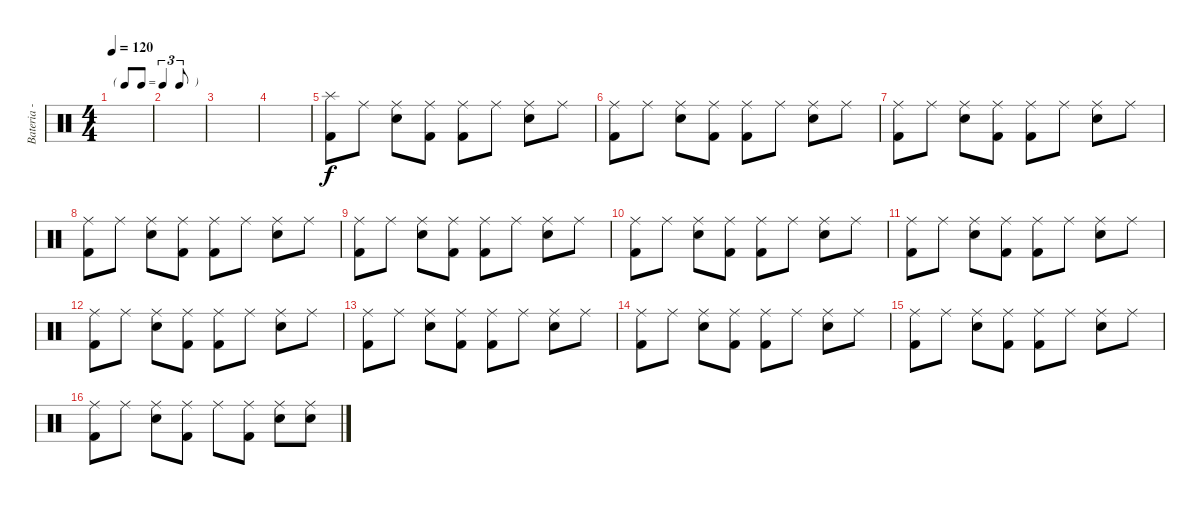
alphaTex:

\track ("Bateria - Cris Layton" "Bateria - ") {instrument percussion}
\staff {score}
\articulation defaults
\ts (4 4)
\tf triplet8th
\tempo 120
\clef neutral
\ks c
|
|
|
|
("Splash (hit)" "Kick (hit) 2").8 "Ride (middle)".8 ("Ride (middle)" "Electric Snare (hit)").8 ("Ride (middle)" "Kick (hit) 2").8 ("Ride (middle)" "Kick (hit) 2").8 "Ride (middle)".8 ("Ride (middle)" "Electric Snare (hit)").8 "Ride (middle)".8 |
("Ride (middle)" "Kick (hit) 2").8 "Ride (middle)".8 ("Ride (middle)" "Electric Snare (hit)").8 ("Ride (middle)" "Kick (hit) 2").8 ("Ride (middle)" "Kick (hit) 2").8 "Ride (middle)".8 ("Ride (middle)" "Electric Snare (hit)").8 "Ride (middle)".8 |
("Ride (middle)" "Kick (hit) 2").8 "Ride (middle)".8 ("Ride (middle)" "Electric Snare (hit)").8 ("Ride (middle)" "Kick (hit) 2").8 ("Ride (middle)" "Kick (hit) 2").8 "Ride (middle)".8 ("Ride (middle)" "Electric Snare (hit)").8 "Ride (middle)".8 |
("Ride (middle)" "Kick (hit) 2").8 "Ride (middle)".8 ("Ride (middle)" "Electric Snare (hit)").8 ("Ride (middle)" "Kick (hit) 2").8 ("Ride (middle)" "Kick (hit) 2").8 "Ride (middle)".8 ("Ride (middle)" "Electric Snare (hit)").8 "Ride (middle)".8 |
("Ride (middle)" "Kick (hit) 2").8 "Ride (middle)".8 ("Ride (middle)" "Electric Snare (hit)").8 ("Ride (middle)" "Kick (hit) 2").8 ("Ride (middle)" "Kick (hit) 2").8 "Ride (middle)".8 ("Ride (middle)" "Electric Snare (hit)").8 "Ride (middle)".8 |
("Ride (middle)" "Kick (hit) 2").8 "Ride (middle)".8 ("Ride (middle)" "Electric Snare (hit)").8 ("Ride (middle)" "Kick (hit) 2").8 ("Ride (middle)" "Kick (hit) 2").8 "Ride (middle)".8 ("Ride (middle)" "Electric Snare (hit)").8 "Ride (middle)".8 |
("Ride (middle)" "Kick (hit) 2").8 "Ride (middle)".8 ("Ride (middle)" "Electric Snare (hit)").8 ("Ride (middle)" "Kick (hit) 2").8 ("Ride (middle)" "Kick (hit) 2").8 "Ride (middle)".8 ("Ride (middle)" "Electric Snare (hit)").8 "Ride (middle)".8 |
("Ride (middle)" "Kick (hit) 2").8 "Ride (middle)".8 ("Ride (middle)" "Electric Snare (hit)").8 ("Ride (middle)" "Kick (hit) 2").8 ("Ride (middle)" "Kick (hit) 2").8 "Ride (middle)".8 ("Ride (middle)" "Electric Snare (hit)").8 "Ride (middle)".8 |
("Ride (middle)" "Kick (hit) 2").8 "Ride (middle)".8 ("Ride (middle)" "Electric Snare (hit)").8 ("Ride (middle)" "Kick (hit) 2").8 ("Ride (middle)" "Kick (hit) 2").8 "Ride (middle)".8 ("Ride (middle)" "Electric Snare (hit)").8 "Ride (middle)".8 |
("Ride (middle)" "Kick (hit) 2").8 "Ride (middle)".8 ("Ride (middle)" "Electric Snare (hit)").8 ("Ride (middle)" "Kick (hit) 2").8 ("Ride (middle)" "Kick (hit) 2").8 "Ride (middle)".8 ("Ride (middle)" "Electric Snare (hit)").8 "Ride (middle)".8 |
("Ride (middle)" "Kick (hit) 2").8 "Ride (middle)".8 ("Ride (middle)" "Electric Snare (hit)").8 ("Ride (middle)" "Kick (hit) 2").8 ("Ride (middle)" "Kick (hit) 2").8 "Ride (middle)".8 ("Ride (middle)" "Electric Snare (hit)").8 "Ride (middle)".8 |
("Ride (middle)" "Kick (hit) 2").8 "Ride (middle)".8 ("Ride (middle)" "Electric Snare (hit)").8 ("Ride (middle)" "Kick (hit) 2").8 "Ride (middle)".8 ("Ride (middle)" "Kick (hit) 2").8 ("Ride (middle)" "Electric Snare (hit)").8 ("Ride (middle)" "Electric Snare (hit)").8
